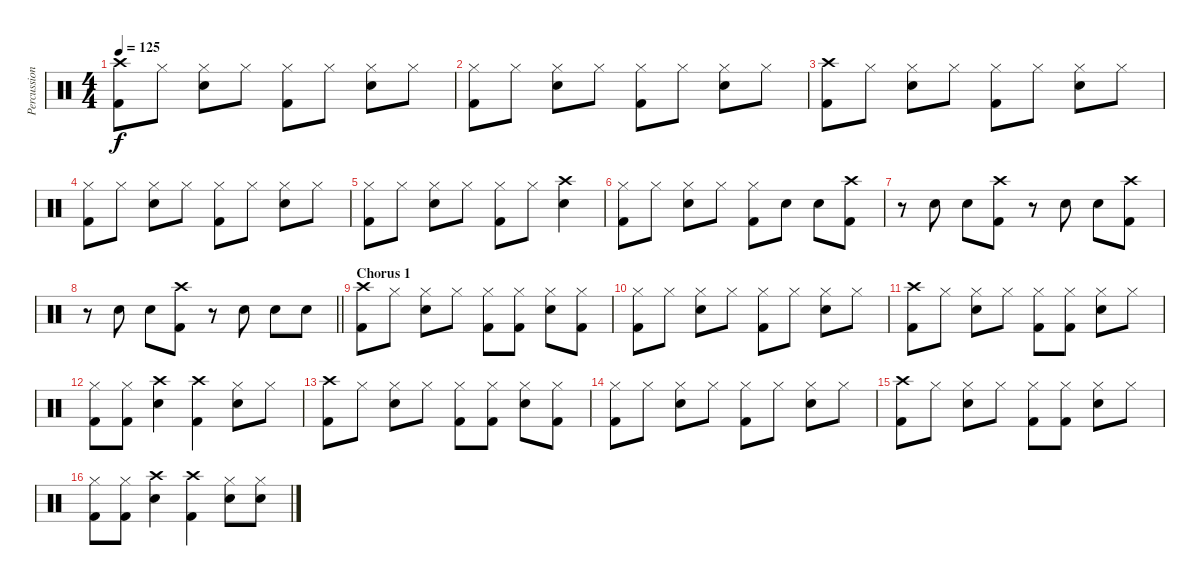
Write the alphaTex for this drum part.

\track ("Percussions" "Percussion") {instrument percussion}
\staff {score}
\articulation defaults
\ts (4 4)
\tempo 125
\clef neutral
\ks c
("Crash high (hit)" "Kick (hit) 2").8{dy f} "Hi-Hat (closed)".8 ("Hi-Hat (closed)" "Snare (hit) 2").8 "Hi-Hat (closed)".8 ("Hi-Hat (closed)" "Kick (hit) 2").8 "Hi-Hat (closed)".8 ("Hi-Hat (closed)" "Snare (hit) 2").8 "Hi-Hat (closed)".8 |
("Hi-Hat (closed)" "Kick (hit) 2").8 "Hi-Hat (closed)".8 ("Hi-Hat (closed)" "Snare (hit) 2").8 "Hi-Hat (closed)".8 ("Hi-Hat (closed)" "Kick (hit) 2").8 "Hi-Hat (closed)".8 ("Hi-Hat (closed)" "Snare (hit) 2").8 "Hi-Hat (closed)".8 |
("Crash high (hit)" "Kick (hit) 2").8 "Hi-Hat (closed)".8 ("Hi-Hat (closed)" "Snare (hit) 2").8 "Hi-Hat (closed)".8 ("Hi-Hat (closed)" "Kick (hit) 2").8 "Hi-Hat (closed)".8 ("Hi-Hat (closed)" "Snare (hit) 2").8 "Hi-Hat (closed)".8 |
("Hi-Hat (closed)" "Kick (hit) 2").8 "Hi-Hat (closed)".8 ("Hi-Hat (closed)" "Snare (hit) 2").8 "Hi-Hat (closed)".8 ("Hi-Hat (closed)" "Kick (hit) 2").8 "Hi-Hat (closed)".8 ("Hi-Hat (closed)" "Snare (hit) 2").8 "Hi-Hat (closed)".8 |
("Hi-Hat (closed)" "Kick (hit) 2").8 "Hi-Hat (closed)".8 ("Hi-Hat (closed)" "Snare (hit) 2").8 "Hi-Hat (closed)".8 ("Hi-Hat (closed)" "Kick (hit) 2").8 "Hi-Hat (closed)".8 ("Crash high (hit)" "Snare (hit) 2").4 |
("Hi-Hat (closed)" "Kick (hit) 2").8 "Hi-Hat (closed)".8 ("Hi-Hat (closed)" "Snare (hit) 2").8 "Hi-Hat (closed)".8 ("Hi-Hat (closed)" "Kick (hit) 2").8 "Snare (hit) 2".8 "Snare (hit) 2".8 ("Crash high (hit)" "Kick (hit) 2").8 |
r.8 "Snare (hit) 2".8 "Snare (hit) 2".8 ("Crash high (hit)" "Kick (hit) 2").8 r.8 "Snare (hit) 2".8 "Snare (hit) 2".8 ("Crash high (hit)" "Kick (hit) 2").8 |
\barLineRight lightlight
r.8 "Snare (hit) 2".8 "Snare (hit) 2".8 ("Crash high (hit)" "Kick (hit) 2").8 r.8 "Snare (hit) 2".8 "Snare (hit) 2".8 "Snare (hit) 2".8 |
\section ("" "Chorus 1")
("Crash high (hit)" "Kick (hit) 2").8 "Hi-Hat (closed)".8 ("Hi-Hat (closed)" "Snare (hit) 2").8 "Hi-Hat (closed)".8 ("Hi-Hat (closed)" "Kick (hit) 2").8 ("Hi-Hat (closed)" "Kick (hit) 2").8 ("Hi-Hat (closed)" "Snare (hit) 2").8 ("Hi-Hat (closed)" "Kick (hit) 2").8 |
("Hi-Hat (closed)" "Kick (hit) 2").8 "Hi-Hat (closed)".8 ("Hi-Hat (closed)" "Snare (hit) 2").8 "Hi-Hat (closed)".8 ("Hi-Hat (closed)" "Kick (hit) 2").8 "Hi-Hat (closed)".8 ("Hi-Hat (closed)" "Snare (hit) 2").8 "Hi-Hat (closed)".8 |
("Crash high (hit)" "Kick (hit) 2").8 "Hi-Hat (closed)".8 ("Hi-Hat (closed)" "Snare (hit) 2").8 "Hi-Hat (closed)".8 ("Hi-Hat (closed)" "Kick (hit) 2").8 ("Hi-Hat (closed)" "Kick (hit) 2").8 ("Hi-Hat (closed)" "Snare (hit) 2").8 "Hi-Hat (closed)".8 |
("Hi-Hat (closed)" "Kick (hit) 2").8 ("Hi-Hat (closed)" "Kick (hit) 2").8 ("Crash high (hit)" "Snare (hit) 2").4 ("Crash high (hit)" "Kick (hit) 2").4 ("Hi-Hat (closed)" "Snare (hit) 2").8 "Hi-Hat (closed)".8 |
("Crash high (hit)" "Kick (hit) 2").8 "Hi-Hat (closed)".8 ("Hi-Hat (closed)" "Snare (hit) 2").8 "Hi-Hat (closed)".8 ("Hi-Hat (closed)" "Kick (hit) 2").8 ("Hi-Hat (closed)" "Kick (hit) 2").8 ("Hi-Hat (closed)" "Snare (hit) 2").8 ("Hi-Hat (closed)" "Kick (hit) 2").8 |
("Hi-Hat (closed)" "Kick (hit) 2").8 "Hi-Hat (closed)".8 ("Hi-Hat (closed)" "Snare (hit) 2").8 "Hi-Hat (closed)".8 ("Hi-Hat (closed)" "Kick (hit) 2").8 "Hi-Hat (closed)".8 ("Hi-Hat (closed)" "Snare (hit) 2").8 "Hi-Hat (closed)".8 |
("Crash high (hit)" "Kick (hit) 2").8 "Hi-Hat (closed)".8 ("Hi-Hat (closed)" "Snare (hit) 2").8 "Hi-Hat (closed)".8 ("Hi-Hat (closed)" "Kick (hit) 2").8 ("Hi-Hat (closed)" "Kick (hit) 2").8 ("Hi-Hat (closed)" "Snare (hit) 2").8 "Hi-Hat (closed)".8 |
("Hi-Hat (closed)" "Kick (hit) 2").8 ("Hi-Hat (closed)" "Kick (hit) 2").8 ("Crash high (hit)" "Snare (hit) 2").4 ("Crash high (hit)" "Kick (hit) 2").4 ("Hi-Hat (closed)" "Snare (hit) 2").8 ("Hi-Hat (closed)" "Snare (hit) 2").8
